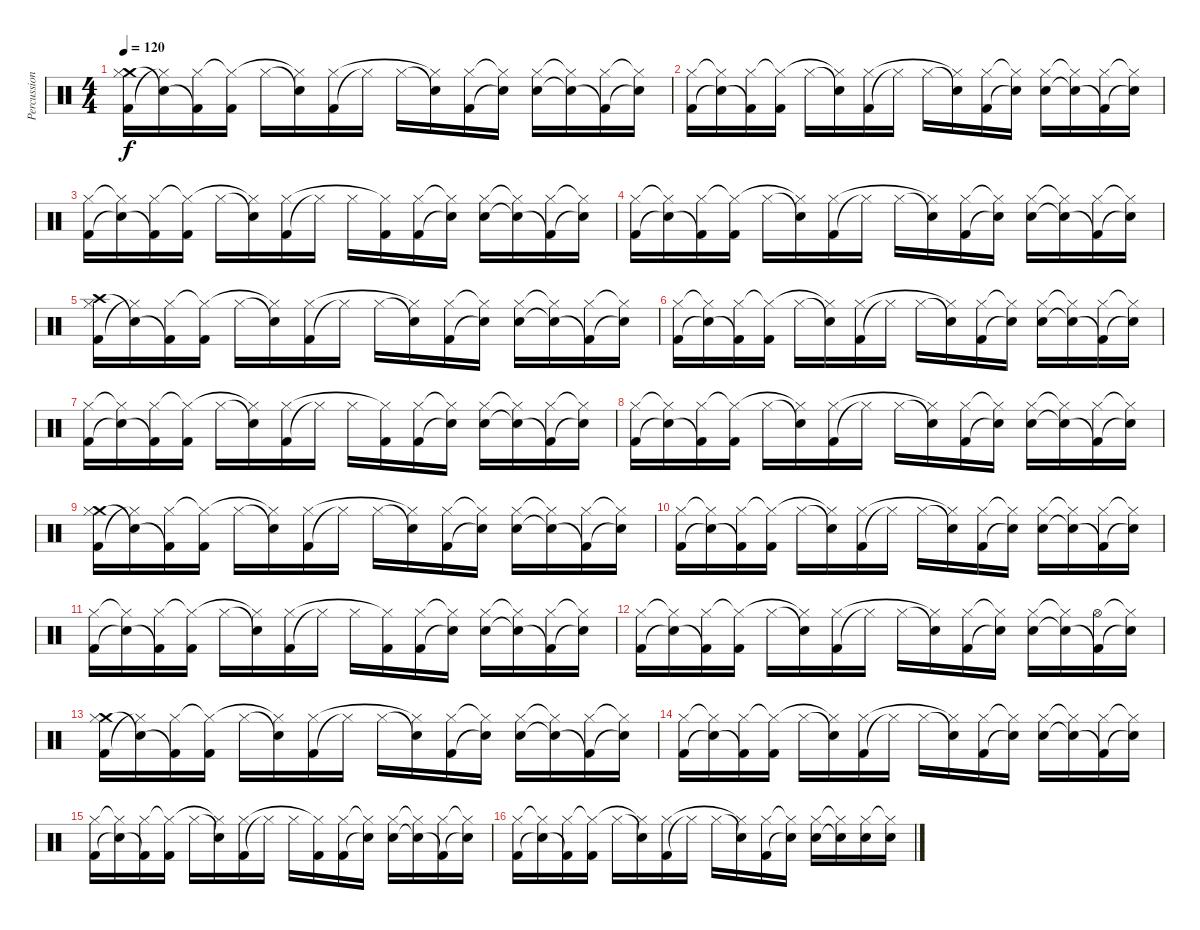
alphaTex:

\track ("Percussions" "Percussion") {instrument percussion}
\staff {score}
\articulation defaults
\ts (4 4)
\tempo 120
\clef neutral
\ks c
("Crash medium (hit)" "Kick (hit) 2" "Hi-Hat (closed)").16{dy f} ("Snare (hit)"{t} "Hi-Hat (closed)"{t}).16 ("Kick (hit) 2"{t} "Hi-Hat (closed)").16 ("Kick (hit) 2" "Hi-Hat (closed)"{t}).16 "Hi-Hat (closed)".16 ("Snare (hit)"{t} "Hi-Hat (closed)"{t}).16 ("Kick (hit) 2" "Hi-Hat (closed)").16 "Hi-Hat (closed)"{t}.16 "Hi-Hat (closed)".16 ("Snare (hit)"{t} "Hi-Hat (closed)"{t}).16 ("Kick (hit) 2" "Hi-Hat (closed)").16 ("Snare (hit)"{t} "Hi-Hat (closed)"{t}).16 ("Electric Snare (hit)" "Hi-Hat (closed)").16 ("Snare (hit)"{t} "Hi-Hat (closed)"{t}).16 ("Kick (hit) 2"{t} "Hi-Hat (closed)").16 ("Snare (hit)"{t} "Hi-Hat (closed)"{t}).16 |
("Kick (hit) 2" "Hi-Hat (closed)").16 ("Snare (hit)"{t} "Hi-Hat (closed)"{t}).16 ("Kick (hit) 2"{t} "Hi-Hat (closed)").16 ("Kick (hit) 2" "Hi-Hat (closed)"{t}).16 "Hi-Hat (closed)".16 ("Snare (hit)"{t} "Hi-Hat (closed)"{t}).16 ("Kick (hit) 2" "Hi-Hat (closed)").16 "Hi-Hat (closed)"{t}.16 "Hi-Hat (closed)".16 ("Snare (hit)"{t} "Hi-Hat (closed)"{t}).16 ("Kick (hit) 2" "Hi-Hat (closed)").16 ("Snare (hit)"{t} "Hi-Hat (closed)"{t}).16 ("Electric Snare (hit)" "Hi-Hat (closed)").16 ("Snare (hit)"{t} "Hi-Hat (closed)"{t}).16 ("Kick (hit) 2"{t} "Hi-Hat (closed)").16 ("Snare (hit)"{t} "Hi-Hat (closed)"{t}).16 |
("Kick (hit) 2" "Hi-Hat (closed)").16 ("Snare (hit)"{t} "Hi-Hat (closed)"{t}).16 ("Kick (hit) 2"{t} "Hi-Hat (closed)").16 ("Kick (hit) 2" "Hi-Hat (closed)"{t}).16 "Hi-Hat (closed)".16 ("Snare (hit)"{t} "Hi-Hat (closed)"{t}).16 ("Kick (hit) 2" "Hi-Hat (closed)").16 "Hi-Hat (closed)"{t}.16 "Hi-Hat (closed)".16 ("Kick (hit) 2" "Hi-Hat (closed)"{t}).16 ("Kick (hit) 2" "Hi-Hat (closed)").16 ("Snare (hit)"{t} "Hi-Hat (closed)"{t}).16 ("Electric Snare (hit)" "Hi-Hat (closed)").16 ("Snare (hit)"{t} "Hi-Hat (closed)"{t}).16 ("Kick (hit) 2"{t} "Hi-Hat (closed)").16 ("Snare (hit)"{t} "Hi-Hat (closed)"{t}).16 |
("Kick (hit) 2" "Hi-Hat (closed)").16 ("Snare (hit)"{t} "Hi-Hat (closed)"{t}).16 ("Kick (hit) 2"{t} "Hi-Hat (closed)").16 ("Kick (hit) 2" "Hi-Hat (closed)"{t}).16 "Hi-Hat (closed)".16 ("Snare (hit)"{t} "Hi-Hat (closed)"{t}).16 ("Kick (hit) 2" "Hi-Hat (closed)").16 "Hi-Hat (closed)"{t}.16 "Hi-Hat (closed)".16 ("Snare (hit)"{t} "Hi-Hat (closed)"{t}).16 ("Kick (hit) 2" "Hi-Hat (closed)").16 ("Snare (hit)"{t} "Hi-Hat (closed)"{t}).16 ("Electric Snare (hit)" "Hi-Hat (closed)").16 ("Snare (hit)"{t} "Hi-Hat (closed)"{t}).16 ("Kick (hit) 2"{t} "Hi-Hat (closed)").16 ("Snare (hit)"{t} "Hi-Hat (closed)"{t}).16 |
("Crash high (hit)" "Kick (hit) 2" "Hi-Hat (closed)").16 ("Snare (hit)"{t} "Hi-Hat (closed)"{t}).16 ("Kick (hit) 2"{t} "Hi-Hat (closed)").16 ("Kick (hit) 2" "Hi-Hat (closed)"{t}).16 "Hi-Hat (closed)".16 ("Snare (hit)"{t} "Hi-Hat (closed)"{t}).16 ("Kick (hit) 2" "Hi-Hat (closed)").16 "Hi-Hat (closed)"{t}.16 "Hi-Hat (closed)".16 ("Snare (hit)"{t} "Hi-Hat (closed)"{t}).16 ("Kick (hit) 2" "Hi-Hat (closed)").16 ("Snare (hit)"{t} "Hi-Hat (closed)"{t}).16 ("Electric Snare (hit)" "Hi-Hat (closed)").16 ("Snare (hit)"{t} "Hi-Hat (closed)"{t}).16 ("Kick (hit) 2"{t} "Hi-Hat (closed)").16 ("Snare (hit)"{t} "Hi-Hat (closed)"{t}).16 |
("Kick (hit) 2" "Hi-Hat (closed)").16 ("Snare (hit)"{t} "Hi-Hat (closed)"{t}).16 ("Kick (hit) 2"{t} "Hi-Hat (closed)").16 ("Kick (hit) 2" "Hi-Hat (closed)"{t}).16 "Hi-Hat (closed)".16 ("Snare (hit)"{t} "Hi-Hat (closed)"{t}).16 ("Kick (hit) 2" "Hi-Hat (closed)").16 "Hi-Hat (closed)"{t}.16 "Hi-Hat (closed)".16 ("Snare (hit)"{t} "Hi-Hat (closed)"{t}).16 ("Kick (hit) 2" "Hi-Hat (closed)").16 ("Snare (hit)"{t} "Hi-Hat (closed)"{t}).16 ("Electric Snare (hit)" "Hi-Hat (closed)").16 ("Snare (hit)"{t} "Hi-Hat (closed)"{t}).16 ("Kick (hit) 2"{t} "Hi-Hat (closed)").16 ("Snare (hit)"{t} "Hi-Hat (closed)"{t}).16 |
("Kick (hit) 2" "Hi-Hat (closed)").16 ("Snare (hit)"{t} "Hi-Hat (closed)"{t}).16 ("Kick (hit) 2"{t} "Hi-Hat (closed)").16 ("Kick (hit) 2" "Hi-Hat (closed)"{t}).16 "Hi-Hat (closed)".16 ("Snare (hit)"{t} "Hi-Hat (closed)"{t}).16 ("Kick (hit) 2" "Hi-Hat (closed)").16 "Hi-Hat (closed)"{t}.16 "Hi-Hat (closed)".16 ("Kick (hit) 2" "Hi-Hat (closed)"{t}).16 ("Kick (hit) 2" "Hi-Hat (closed)").16 ("Snare (hit)"{t} "Hi-Hat (closed)"{t}).16 ("Electric Snare (hit)" "Hi-Hat (closed)").16 ("Snare (hit)"{t} "Hi-Hat (closed)"{t}).16 ("Kick (hit) 2"{t} "Hi-Hat (closed)").16 ("Snare (hit)"{t} "Hi-Hat (closed)"{t}).16 |
("Kick (hit) 2" "Hi-Hat (closed)").16 ("Snare (hit)"{t} "Hi-Hat (closed)"{t}).16 ("Kick (hit) 2"{t} "Hi-Hat (closed)").16 ("Kick (hit) 2" "Hi-Hat (closed)"{t}).16 "Hi-Hat (closed)".16 ("Snare (hit)"{t} "Hi-Hat (closed)"{t}).16 ("Kick (hit) 2" "Hi-Hat (closed)").16 "Hi-Hat (closed)"{t}.16 "Hi-Hat (closed)".16 ("Snare (hit)"{t} "Hi-Hat (closed)"{t}).16 ("Kick (hit) 2" "Hi-Hat (closed)").16 ("Snare (hit)"{t} "Hi-Hat (closed)"{t}).16 ("Electric Snare (hit)" "Hi-Hat (closed)").16 ("Snare (hit)"{t} "Hi-Hat (closed)"{t}).16 ("Kick (hit) 2"{t} "Hi-Hat (closed)").16 ("Snare (hit)"{t} "Hi-Hat (closed)"{t}).16 |
("Crash medium (hit)" "Kick (hit) 2" "Hi-Hat (closed)").16 ("Snare (hit)"{t} "Hi-Hat (closed)"{t}).16 ("Kick (hit) 2"{t} "Hi-Hat (closed)").16 ("Kick (hit) 2" "Hi-Hat (closed)"{t}).16 "Hi-Hat (closed)".16 ("Snare (hit)"{t} "Hi-Hat (closed)"{t}).16 ("Kick (hit) 2" "Hi-Hat (closed)").16 "Hi-Hat (closed)"{t}.16 "Hi-Hat (closed)".16 ("Snare (hit)"{t} "Hi-Hat (closed)"{t}).16 ("Kick (hit) 2" "Hi-Hat (closed)").16 ("Snare (hit)"{t} "Hi-Hat (closed)"{t}).16 ("Electric Snare (hit)" "Hi-Hat (closed)").16 ("Snare (hit)"{t} "Hi-Hat (closed)"{t}).16 ("Kick (hit) 2"{t} "Hi-Hat (closed)").16 ("Snare (hit)"{t} "Hi-Hat (closed)"{t}).16 |
("Kick (hit) 2" "Hi-Hat (closed)").16 ("Snare (hit)"{t} "Hi-Hat (closed)"{t}).16 ("Kick (hit) 2"{t} "Hi-Hat (closed)").16 ("Kick (hit) 2" "Hi-Hat (closed)"{t}).16 "Hi-Hat (closed)".16 ("Snare (hit)"{t} "Hi-Hat (closed)"{t}).16 ("Kick (hit) 2" "Hi-Hat (closed)").16 "Hi-Hat (closed)"{t}.16 "Hi-Hat (closed)".16 ("Snare (hit)"{t} "Hi-Hat (closed)"{t}).16 ("Kick (hit) 2" "Hi-Hat (closed)").16 ("Snare (hit)"{t} "Hi-Hat (closed)"{t}).16 ("Electric Snare (hit)" "Hi-Hat (closed)").16 ("Snare (hit)"{t} "Hi-Hat (closed)"{t}).16 ("Kick (hit) 2"{t} "Hi-Hat (closed)").16 ("Snare (hit)"{t} "Hi-Hat (closed)"{t}).16 |
("Kick (hit) 2" "Hi-Hat (closed)").16 ("Snare (hit)"{t} "Hi-Hat (closed)"{t}).16 ("Kick (hit) 2"{t} "Hi-Hat (closed)").16 ("Kick (hit) 2" "Hi-Hat (closed)"{t}).16 "Hi-Hat (closed)".16 ("Snare (hit)"{t} "Hi-Hat (closed)"{t}).16 ("Kick (hit) 2" "Hi-Hat (closed)").16 "Hi-Hat (closed)"{t}.16 "Hi-Hat (closed)".16 ("Kick (hit) 2" "Hi-Hat (closed)"{t}).16 ("Kick (hit) 2" "Hi-Hat (closed)").16 ("Snare (hit)"{t} "Hi-Hat (closed)"{t}).16 ("Electric Snare (hit)" "Hi-Hat (closed)").16 ("Snare (hit)"{t} "Hi-Hat (closed)"{t}).16 ("Kick (hit) 2"{t} "Hi-Hat (closed)").16 ("Snare (hit)"{t} "Hi-Hat (closed)"{t}).16 |
("Kick (hit) 2" "Hi-Hat (closed)").16 ("Snare (hit)"{t} "Hi-Hat (closed)"{t}).16 ("Kick (hit) 2"{t} "Hi-Hat (closed)").16 ("Kick (hit) 2" "Hi-Hat (closed)"{t}).16 "Hi-Hat (closed)".16 ("Snare (hit)"{t} "Hi-Hat (closed)"{t}).16 ("Kick (hit) 2" "Hi-Hat (closed)").16 "Hi-Hat (closed)"{t}.16 "Hi-Hat (closed)".16 ("Snare (hit)"{t} "Hi-Hat (closed)"{t}).16 ("Kick (hit) 2" "Hi-Hat (closed)").16 ("Snare (hit)"{t} "Hi-Hat (closed)"{t}).16 ("Electric Snare (hit)" "Hi-Hat (closed)").16 ("Snare (hit)"{t} "Hi-Hat (closed)"{t}).16 ("Kick (hit) 2"{t} "Hi-Hat (open)").16 ("Snare (hit)"{t} "Hi-Hat (closed)"{t}).16 |
("Crash medium (hit)" "Kick (hit) 2" "Hi-Hat (closed)").16 ("Snare (hit)"{t} "Hi-Hat (closed)"{t}).16 ("Kick (hit) 2"{t} "Hi-Hat (closed)").16 ("Kick (hit) 2" "Hi-Hat (closed)"{t}).16 "Hi-Hat (closed)".16 ("Snare (hit)"{t} "Hi-Hat (closed)"{t}).16 ("Kick (hit) 2" "Hi-Hat (closed)").16 "Hi-Hat (closed)"{t}.16 "Hi-Hat (closed)".16 ("Snare (hit)"{t} "Hi-Hat (closed)"{t}).16 ("Kick (hit) 2" "Hi-Hat (closed)").16 ("Snare (hit)"{t} "Hi-Hat (closed)"{t}).16 ("Electric Snare (hit)" "Hi-Hat (closed)").16 ("Snare (hit)"{t} "Hi-Hat (closed)"{t}).16 ("Kick (hit) 2"{t} "Hi-Hat (closed)").16 ("Snare (hit)"{t} "Hi-Hat (closed)"{t}).16 |
("Kick (hit) 2" "Hi-Hat (closed)").16 ("Snare (hit)"{t} "Hi-Hat (closed)"{t}).16 ("Kick (hit) 2"{t} "Hi-Hat (closed)").16 ("Kick (hit) 2" "Hi-Hat (closed)"{t}).16 "Hi-Hat (closed)".16 ("Snare (hit)"{t} "Hi-Hat (closed)"{t}).16 ("Kick (hit) 2" "Hi-Hat (closed)").16 "Hi-Hat (closed)"{t}.16 "Hi-Hat (closed)".16 ("Snare (hit)"{t} "Hi-Hat (closed)"{t}).16 ("Kick (hit) 2" "Hi-Hat (closed)").16 ("Snare (hit)"{t} "Hi-Hat (closed)"{t}).16 ("Electric Snare (hit)" "Hi-Hat (closed)").16 ("Snare (hit)"{t} "Hi-Hat (closed)"{t}).16 ("Kick (hit) 2"{t} "Hi-Hat (closed)").16 ("Snare (hit)"{t} "Hi-Hat (closed)"{t}).16 |
("Kick (hit) 2" "Hi-Hat (closed)").16 ("Snare (hit)"{t} "Hi-Hat (closed)"{t}).16 ("Kick (hit) 2"{t} "Hi-Hat (closed)").16 ("Kick (hit) 2" "Hi-Hat (closed)"{t}).16 "Hi-Hat (closed)".16 ("Snare (hit)"{t} "Hi-Hat (closed)"{t}).16 ("Kick (hit) 2" "Hi-Hat (closed)").16 "Hi-Hat (closed)"{t}.16 "Hi-Hat (closed)".16 ("Kick (hit) 2" "Hi-Hat (closed)"{t}).16 ("Kick (hit) 2" "Hi-Hat (closed)").16 ("Snare (hit)"{t} "Hi-Hat (closed)"{t}).16 ("Electric Snare (hit)" "Hi-Hat (closed)").16 ("Snare (hit)"{t} "Hi-Hat (closed)"{t}).16 ("Kick (hit) 2"{t} "Hi-Hat (closed)").16 ("Snare (hit)"{t} "Hi-Hat (closed)"{t}).16 |
("Kick (hit) 2" "Hi-Hat (closed)").16 ("Snare (hit)"{t} "Hi-Hat (closed)"{t}).16 ("Kick (hit) 2"{t} "Hi-Hat (closed)").16 ("Kick (hit) 2" "Hi-Hat (closed)"{t}).16 "Hi-Hat (closed)".16 ("Snare (hit)"{t} "Hi-Hat (closed)"{t}).16 ("Kick (hit) 2" "Hi-Hat (closed)").16 "Hi-Hat (closed)"{t}.16 "Hi-Hat (closed)".16 ("Snare (hit)"{t} "Hi-Hat (closed)"{t}).16 ("Kick (hit) 2" "Hi-Hat (closed)").16 ("Snare (hit)"{t} "Hi-Hat (closed)"{t}).16 ("Electric Snare (hit)" "Hi-Hat (closed)").16 ("Snare (hit)"{t} "Hi-Hat (closed)"{t}).16 ("Electric Snare (hit)" "Hi-Hat (closed)").16 ("Electric Snare (hit)" "Hi-Hat (closed)"{t}).16
